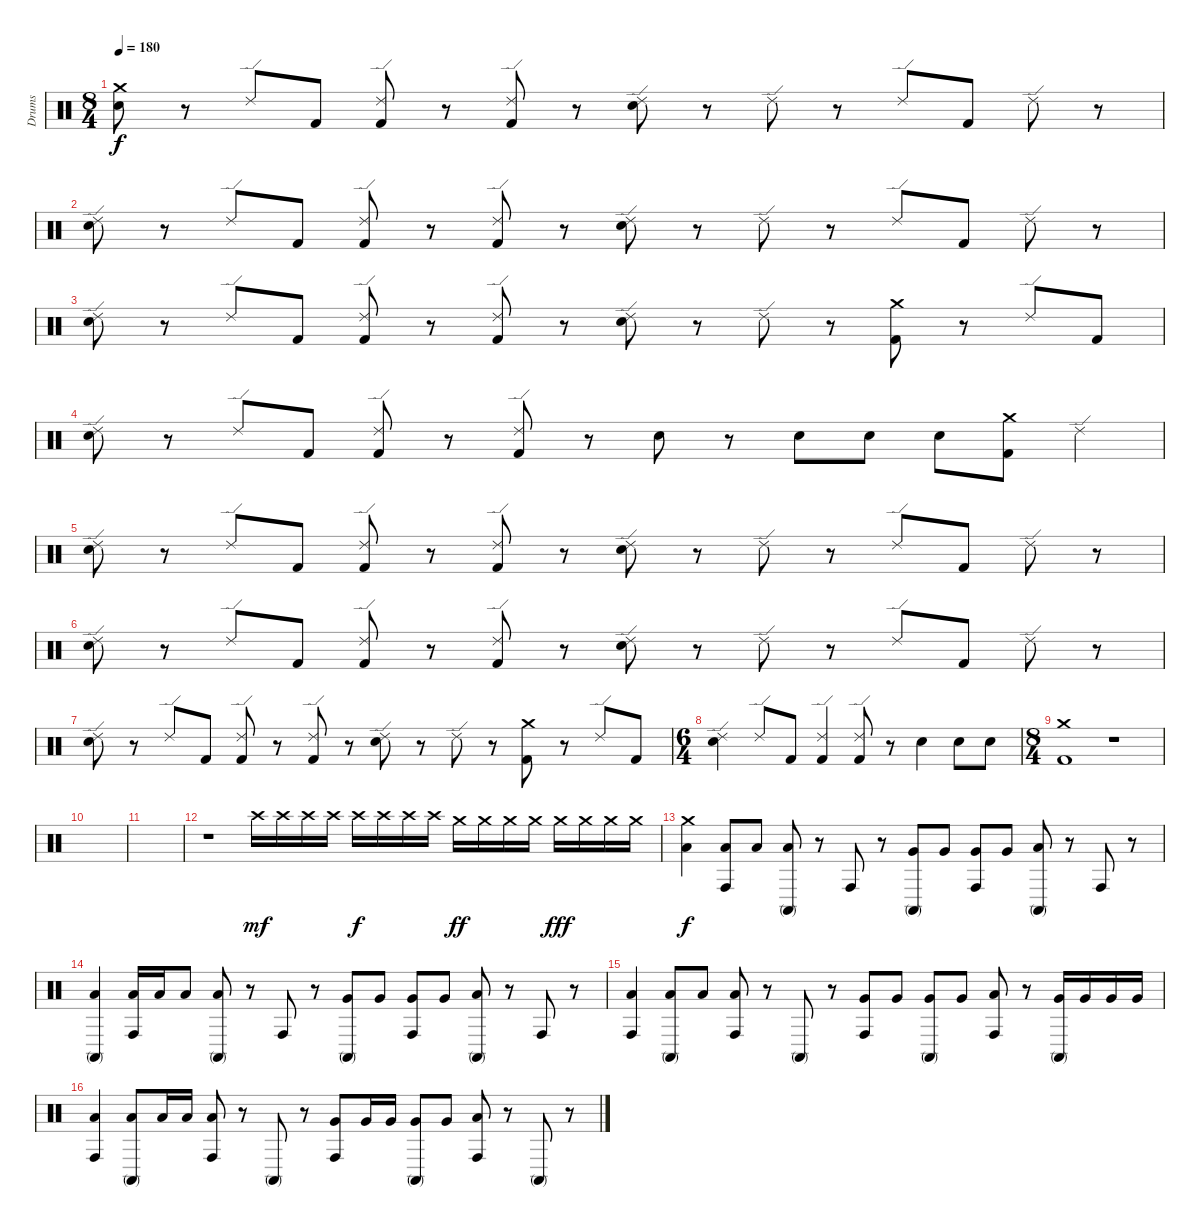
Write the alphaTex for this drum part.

\track ("Drums" "Drums") {instrument percussion}
\staff {score}
\articulation defaults
\ts (8 4)
\tempo 180
\clef neutral
\ks c
("Crash medium (hit)" "Snare (hit) 2").8{dy f} r.8 "Ride (edge) 2".8 "Kick (hit) 2".8 ("Ride (edge) 2" "Kick (hit) 2").8 r.8 ("Kick (hit) 2" "Ride (edge) 2").8 r.8 ("Ride (edge) 2" "Snare (hit) 2").8 r.8 "Ride (edge) 2".8 r.8 "Ride (edge) 2".8 "Kick (hit) 2".8 "Ride (edge) 2".8 r.8 |
("Ride (edge) 2" "Snare (hit) 2").8 r.8 "Ride (edge) 2".8 "Kick (hit) 2".8 ("Ride (edge) 2" "Kick (hit) 2").8 r.8 ("Ride (edge) 2" "Kick (hit) 2").8 r.8 ("Ride (edge) 2" "Snare (hit) 2").8 r.8 "Ride (edge) 2".8 r.8 "Ride (edge) 2".8 "Kick (hit) 2".8 "Ride (edge) 2".8 r.8 |
("Ride (edge) 2" "Snare (hit) 2").8 r.8 "Ride (edge) 2".8 "Kick (hit) 2".8 ("Ride (edge) 2" "Kick (hit) 2").8 r.8 ("Ride (edge) 2" "Kick (hit) 2").8 r.8 ("Ride (edge) 2" "Snare (hit) 2").8 r.8 "Ride (edge) 2".8 r.8 ("Crash medium (hit)" "Kick (hit) 2").8 r.8 "Ride (edge) 2".8 "Kick (hit) 2".8 |
("Ride (edge) 2" "Snare (hit) 2").8 r.8 "Ride (edge) 2".8 "Kick (hit) 2".8 ("Ride (edge) 2" "Kick (hit) 2").8 r.8 ("Ride (edge) 2" "Kick (hit) 2").8 r.8 "Snare (hit) 2".8 r.8 "Snare (hit) 2".8 "Snare (hit) 2".8 "Snare (hit) 2".8 ("Crash medium (hit)" "Kick (hit) 2").8 "Ride (edge) 2".4 |
("Ride (edge) 2" "Snare (hit) 2").8 r.8 "Ride (edge) 2".8 "Kick (hit) 2".8 ("Ride (edge) 2" "Kick (hit) 2").8 r.8 ("Kick (hit) 2" "Ride (edge) 2").8 r.8 ("Ride (edge) 2" "Snare (hit) 2").8 r.8 "Ride (edge) 2".8 r.8 "Ride (edge) 2".8 "Kick (hit) 2".8 "Ride (edge) 2".8 r.8 |
("Ride (edge) 2" "Snare (hit) 2").8 r.8 "Ride (edge) 2".8 "Kick (hit) 2".8 ("Ride (edge) 2" "Kick (hit) 2").8 r.8 ("Ride (edge) 2" "Kick (hit) 2").8 r.8 ("Ride (edge) 2" "Snare (hit) 2").8 r.8 "Ride (edge) 2".8 r.8 "Ride (edge) 2".8 "Kick (hit) 2".8 "Ride (edge) 2".8 r.8 |
("Ride (edge) 2" "Snare (hit) 2").8 r.8 "Ride (edge) 2".8 "Kick (hit) 2".8 ("Ride (edge) 2" "Kick (hit) 2").8 r.8 ("Ride (edge) 2" "Kick (hit) 2").8 r.8 ("Ride (edge) 2" "Snare (hit) 2").8 r.8 "Ride (edge) 2".8 r.8 ("Crash medium (hit)" "Kick (hit) 2").8 r.8 "Ride (edge) 2".8 "Kick (hit) 2".8 |
\ts (6 4)
("Ride (edge) 2" "Snare (hit) 2").4 "Ride (edge) 2".8 "Kick (hit) 2".8 ("Ride (edge) 2" "Kick (hit) 2").4 ("Ride (edge) 2" "Kick (hit) 2").8 r.8 "Snare (hit) 2".4 "Snare (hit) 2".8 "Snare (hit) 2".8 |
\ts (8 4)
("Crash medium (hit)" "Kick (hit) 2").1 r.1 |
|
|
r.1{volume 6} "Crash high (hit)".16{dy mf} "Crash high (hit)".16 "Crash high (hit)".16 "Crash high (hit)".16 "Crash high (hit)".16{dy f} "Crash high (hit)".16 "Crash high (hit)".16 "Crash high (hit)".16 "Crash medium (hit)".16{dy ff} "Crash medium (hit)".16 "Crash medium (hit)".16 "Crash medium (hit)".16 "Crash medium (hit)".16{dy fff} "Crash medium (hit)".16 "Crash medium (hit)".16 "Crash medium (hit)".16 |
("Crash medium (hit)" "Low Floor Tom (hit)").4{dy f volume 13} ("Conga high (hit)" "Low Floor Tom (hit)").8 "Low Floor Tom (hit)".8 ("Conga high (mute)" "Low Tom (hit)").8 r.8 "Conga high (hit)".8 r.8 ("Conga high (mute)" "Very Low Tom (hit)").8 "Very Low Tom (hit)".8 ("Conga high (hit)" "Very Low Tom (hit)").8 "Very Low Tom (hit)".8 ("Conga high (mute)" "Low Tom (hit)").8 r.8 "Conga high (hit)".8 r.8 |
("Conga high (mute)" "Low Floor Tom (hit)").4 ("Conga high (hit)" "Low Floor Tom (hit)").16 "Low Floor Tom (hit)".16 "Low Floor Tom (hit)".8 ("Conga high (mute)" "Low Tom (hit)").8 r.8 "Conga high (hit)".8 r.8 ("Conga high (mute)" "Very Low Tom (hit)").8 "Very Low Tom (hit)".8 ("Conga high (hit)" "Very Low Tom (hit)").8 "Very Low Tom (hit)".8 ("Conga high (mute)" "Low Tom (hit)").8 r.8 "Conga high (hit)".8 r.8 |
("Conga high (hit)" "Low Floor Tom (hit)").4 ("Conga high (mute)" "Low Floor Tom (hit)").8 "Low Floor Tom (hit)".8 ("Conga high (hit)" "Low Floor Tom (hit)").8 r.8 "Conga high (mute)".8 r.8 ("Conga high (hit)" "Very Low Tom (hit)").8 "Very Low Tom (hit)".8 ("Conga high (mute)" "Very Low Tom (hit)").8 "Very Low Tom (hit)".8 ("Conga high (hit)" "Low Tom (hit)").8 r.8 ("Conga high (mute)" "Very Low Tom (hit)").16 "Very Low Tom (hit)".16 "Very Low Tom (hit)".16 "Very Low Tom (hit)".16 |
("Conga high (hit)" "Low Floor Tom (hit)").4 ("Conga high (mute)" "Low Floor Tom (hit)").8 "Low Floor Tom (hit)".16 "Low Floor Tom (hit)".16 ("Conga high (hit)" "Low Tom (hit)").8 r.8 "Conga high (mute)".8 r.8 ("Conga high (hit)" "Very Low Tom (hit)").8 "Very Low Tom (hit)".16 "Very Low Tom (hit)".16 ("Conga high (mute)" "Very Low Tom (hit)").8 "Very Low Tom (hit)".8 ("Conga high (hit)" "Low Tom (hit)").8 r.8 "Conga high (mute)".8 r.8
